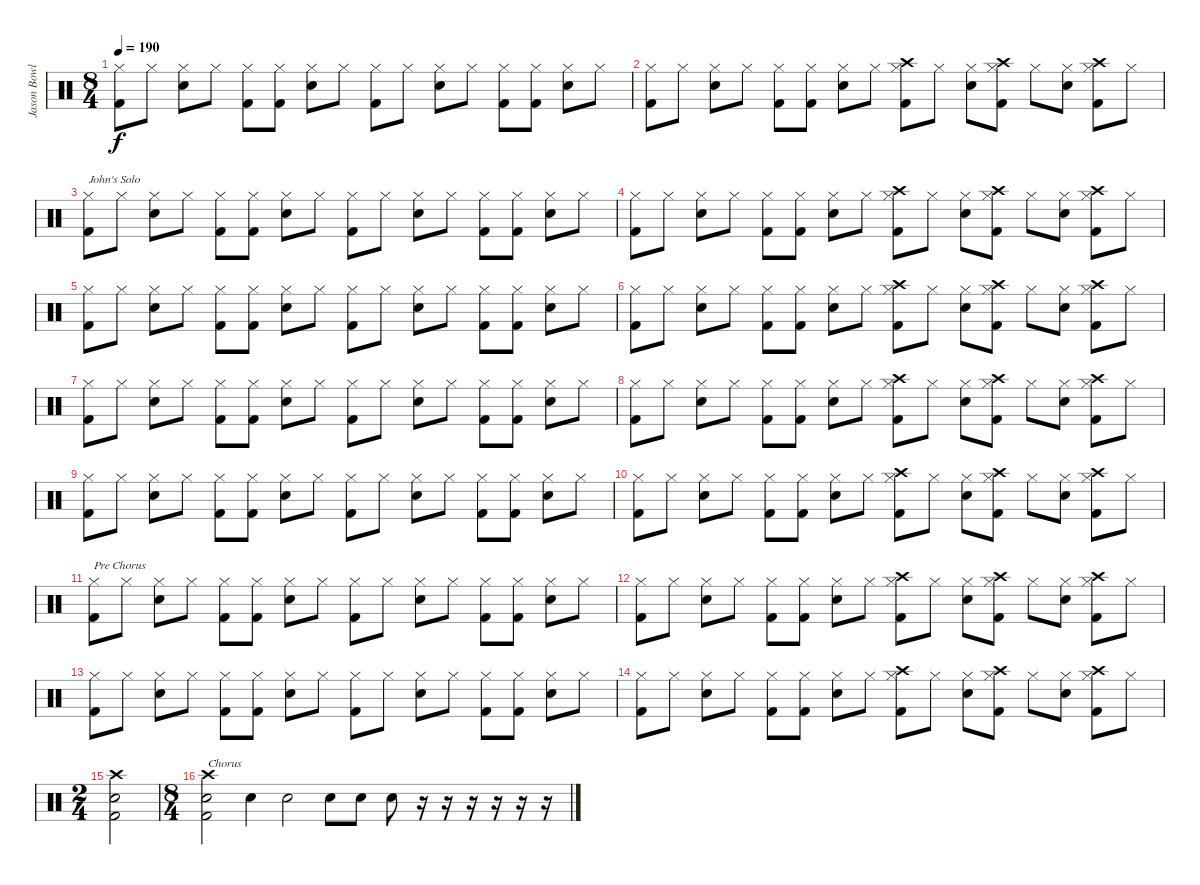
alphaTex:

\track ("Jason Bowld" "Jason Bowl") {instrument percussion}
\staff {score}
\articulation defaults
\ts (8 4)
\tempo 190
\clef neutral
\ks c
("Hi-Hat (closed)" "Kick (hit) 2").8{dy f} "Hi-Hat (closed)".8 ("Hi-Hat (closed)" "Snare (hit) 2").8 "Hi-Hat (closed)".8 ("Hi-Hat (closed)" "Kick (hit) 2").8 ("Hi-Hat (closed)" "Kick (hit) 2").8 ("Hi-Hat (closed)" "Snare (hit) 2").8 "Hi-Hat (closed)".8 ("Hi-Hat (closed)" "Kick (hit) 2").8 "Hi-Hat (closed)".8 ("Hi-Hat (closed)" "Snare (hit) 2").8 "Hi-Hat (closed)".8 ("Hi-Hat (closed)" "Kick (hit) 2").8 ("Hi-Hat (closed)" "Kick (hit) 2").8 ("Hi-Hat (closed)" "Snare (hit) 2").8 "Hi-Hat (closed)".8 |
("Hi-Hat (closed)" "Kick (hit) 2").8 "Hi-Hat (closed)".8 ("Hi-Hat (closed)" "Snare (hit) 2").8 "Hi-Hat (closed)".8 ("Hi-Hat (closed)" "Kick (hit) 2").8 ("Hi-Hat (closed)" "Kick (hit) 2").8 ("Hi-Hat (closed)" "Snare (hit) 2").8 "Hi-Hat (closed)".8 ("Hi-Hat (closed)" "Kick (hit) 2" "Crash high (hit)").8 "Hi-Hat (closed)".8 ("Hi-Hat (closed)" "Snare (hit) 2").8 ("Hi-Hat (closed)" "Kick (hit) 2" "Crash high (hit)").8 "Hi-Hat (closed)".8 ("Hi-Hat (closed)" "Snare (hit) 2").8 ("Hi-Hat (closed)" "Kick (hit) 2" "Crash high (hit)").8 "Hi-Hat (closed)".8 |
("Hi-Hat (closed)" "Kick (hit) 2").8{txt "John's Solo"} "Hi-Hat (closed)".8 ("Hi-Hat (closed)" "Snare (hit) 2").8 "Hi-Hat (closed)".8 ("Hi-Hat (closed)" "Kick (hit) 2").8 ("Hi-Hat (closed)" "Kick (hit) 2").8 ("Hi-Hat (closed)" "Snare (hit) 2").8 "Hi-Hat (closed)".8 ("Hi-Hat (closed)" "Kick (hit) 2").8 "Hi-Hat (closed)".8 ("Hi-Hat (closed)" "Snare (hit) 2").8 "Hi-Hat (closed)".8 ("Hi-Hat (closed)" "Kick (hit) 2").8 ("Hi-Hat (closed)" "Kick (hit) 2").8 ("Hi-Hat (closed)" "Snare (hit) 2").8 "Hi-Hat (closed)".8 |
("Hi-Hat (closed)" "Kick (hit) 2").8 "Hi-Hat (closed)".8 ("Hi-Hat (closed)" "Snare (hit) 2").8 "Hi-Hat (closed)".8 ("Hi-Hat (closed)" "Kick (hit) 2").8 ("Hi-Hat (closed)" "Kick (hit) 2").8 ("Hi-Hat (closed)" "Snare (hit) 2").8 "Hi-Hat (closed)".8 ("Hi-Hat (closed)" "Kick (hit) 2" "Crash high (hit)").8 "Hi-Hat (closed)".8 ("Hi-Hat (closed)" "Snare (hit) 2").8 ("Hi-Hat (closed)" "Kick (hit) 2" "Crash high (hit)").8 "Hi-Hat (closed)".8 ("Hi-Hat (closed)" "Snare (hit) 2").8 ("Hi-Hat (closed)" "Kick (hit) 2" "Crash high (hit)").8 "Hi-Hat (closed)".8 |
("Hi-Hat (closed)" "Kick (hit) 2").8 "Hi-Hat (closed)".8 ("Hi-Hat (closed)" "Snare (hit) 2").8 "Hi-Hat (closed)".8 ("Hi-Hat (closed)" "Kick (hit) 2").8 ("Hi-Hat (closed)" "Kick (hit) 2").8 ("Hi-Hat (closed)" "Snare (hit) 2").8 "Hi-Hat (closed)".8 ("Hi-Hat (closed)" "Kick (hit) 2").8 "Hi-Hat (closed)".8 ("Hi-Hat (closed)" "Snare (hit) 2").8 "Hi-Hat (closed)".8 ("Hi-Hat (closed)" "Kick (hit) 2").8 ("Hi-Hat (closed)" "Kick (hit) 2").8 ("Hi-Hat (closed)" "Snare (hit) 2").8 "Hi-Hat (closed)".8 |
("Hi-Hat (closed)" "Kick (hit) 2").8 "Hi-Hat (closed)".8 ("Hi-Hat (closed)" "Snare (hit) 2").8 "Hi-Hat (closed)".8 ("Hi-Hat (closed)" "Kick (hit) 2").8 ("Hi-Hat (closed)" "Kick (hit) 2").8 ("Hi-Hat (closed)" "Snare (hit) 2").8 "Hi-Hat (closed)".8 ("Hi-Hat (closed)" "Kick (hit) 2" "Crash high (hit)").8 "Hi-Hat (closed)".8 ("Hi-Hat (closed)" "Snare (hit) 2").8 ("Hi-Hat (closed)" "Kick (hit) 2" "Crash high (hit)").8 "Hi-Hat (closed)".8 ("Hi-Hat (closed)" "Snare (hit) 2").8 ("Hi-Hat (closed)" "Kick (hit) 2" "Crash high (hit)").8 "Hi-Hat (closed)".8 |
("Hi-Hat (closed)" "Kick (hit) 2").8 "Hi-Hat (closed)".8 ("Hi-Hat (closed)" "Snare (hit) 2").8 "Hi-Hat (closed)".8 ("Hi-Hat (closed)" "Kick (hit) 2").8 ("Hi-Hat (closed)" "Kick (hit) 2").8 ("Hi-Hat (closed)" "Snare (hit) 2").8 "Hi-Hat (closed)".8 ("Hi-Hat (closed)" "Kick (hit) 2").8 "Hi-Hat (closed)".8 ("Hi-Hat (closed)" "Snare (hit) 2").8 "Hi-Hat (closed)".8 ("Hi-Hat (closed)" "Kick (hit) 2").8 ("Hi-Hat (closed)" "Kick (hit) 2").8 ("Hi-Hat (closed)" "Snare (hit) 2").8 "Hi-Hat (closed)".8 |
("Hi-Hat (closed)" "Kick (hit) 2").8 "Hi-Hat (closed)".8 ("Hi-Hat (closed)" "Snare (hit) 2").8 "Hi-Hat (closed)".8 ("Hi-Hat (closed)" "Kick (hit) 2").8 ("Hi-Hat (closed)" "Kick (hit) 2").8 ("Hi-Hat (closed)" "Snare (hit) 2").8 "Hi-Hat (closed)".8 ("Hi-Hat (closed)" "Kick (hit) 2" "Crash high (hit)").8 "Hi-Hat (closed)".8 ("Hi-Hat (closed)" "Snare (hit) 2").8 ("Hi-Hat (closed)" "Kick (hit) 2" "Crash high (hit)").8 "Hi-Hat (closed)".8 ("Hi-Hat (closed)" "Snare (hit) 2").8 ("Hi-Hat (closed)" "Kick (hit) 2" "Crash high (hit)").8 "Hi-Hat (closed)".8 |
("Hi-Hat (closed)" "Kick (hit) 2").8 "Hi-Hat (closed)".8 ("Hi-Hat (closed)" "Snare (hit) 2").8 "Hi-Hat (closed)".8 ("Hi-Hat (closed)" "Kick (hit) 2").8 ("Hi-Hat (closed)" "Kick (hit) 2").8 ("Hi-Hat (closed)" "Snare (hit) 2").8 "Hi-Hat (closed)".8 ("Hi-Hat (closed)" "Kick (hit) 2").8 "Hi-Hat (closed)".8 ("Hi-Hat (closed)" "Snare (hit) 2").8 "Hi-Hat (closed)".8 ("Hi-Hat (closed)" "Kick (hit) 2").8 ("Hi-Hat (closed)" "Kick (hit) 2").8 ("Hi-Hat (closed)" "Snare (hit) 2").8 "Hi-Hat (closed)".8 |
("Hi-Hat (closed)" "Kick (hit) 2").8 "Hi-Hat (closed)".8 ("Hi-Hat (closed)" "Snare (hit) 2").8 "Hi-Hat (closed)".8 ("Hi-Hat (closed)" "Kick (hit) 2").8 ("Hi-Hat (closed)" "Kick (hit) 2").8 ("Hi-Hat (closed)" "Snare (hit) 2").8 "Hi-Hat (closed)".8 ("Hi-Hat (closed)" "Kick (hit) 2" "Crash high (hit)").8 "Hi-Hat (closed)".8 ("Hi-Hat (closed)" "Snare (hit) 2").8 ("Hi-Hat (closed)" "Kick (hit) 2" "Crash high (hit)").8 "Hi-Hat (closed)".8 ("Hi-Hat (closed)" "Snare (hit) 2").8 ("Hi-Hat (closed)" "Kick (hit) 2" "Crash high (hit)").8 "Hi-Hat (closed)".8 |
("Hi-Hat (closed)" "Kick (hit) 2").8{txt "Pre Chorus"} "Hi-Hat (closed)".8 ("Hi-Hat (closed)" "Snare (hit) 2").8 "Hi-Hat (closed)".8 ("Hi-Hat (closed)" "Kick (hit) 2").8 ("Hi-Hat (closed)" "Kick (hit) 2").8 ("Hi-Hat (closed)" "Snare (hit) 2").8 "Hi-Hat (closed)".8 ("Hi-Hat (closed)" "Kick (hit) 2").8 "Hi-Hat (closed)".8 ("Hi-Hat (closed)" "Snare (hit) 2").8 "Hi-Hat (closed)".8 ("Hi-Hat (closed)" "Kick (hit) 2").8 ("Hi-Hat (closed)" "Kick (hit) 2").8 ("Hi-Hat (closed)" "Snare (hit) 2").8 "Hi-Hat (closed)".8 |
("Hi-Hat (closed)" "Kick (hit) 2").8 "Hi-Hat (closed)".8 ("Hi-Hat (closed)" "Snare (hit) 2").8 "Hi-Hat (closed)".8 ("Hi-Hat (closed)" "Kick (hit) 2").8 ("Hi-Hat (closed)" "Kick (hit) 2").8 ("Hi-Hat (closed)" "Snare (hit) 2").8 "Hi-Hat (closed)".8 ("Hi-Hat (closed)" "Kick (hit) 2" "Crash high (hit)").8 "Hi-Hat (closed)".8 ("Hi-Hat (closed)" "Snare (hit) 2").8 ("Hi-Hat (closed)" "Kick (hit) 2" "Crash high (hit)").8 "Hi-Hat (closed)".8 ("Hi-Hat (closed)" "Snare (hit) 2").8 ("Hi-Hat (closed)" "Kick (hit) 2" "Crash high (hit)").8 "Hi-Hat (closed)".8 |
("Hi-Hat (closed)" "Kick (hit) 2").8 "Hi-Hat (closed)".8 ("Hi-Hat (closed)" "Snare (hit) 2").8 "Hi-Hat (closed)".8 ("Hi-Hat (closed)" "Kick (hit) 2").8 ("Hi-Hat (closed)" "Kick (hit) 2").8 ("Hi-Hat (closed)" "Snare (hit) 2").8 "Hi-Hat (closed)".8 ("Hi-Hat (closed)" "Kick (hit) 2").8 "Hi-Hat (closed)".8 ("Hi-Hat (closed)" "Snare (hit) 2").8 "Hi-Hat (closed)".8 ("Hi-Hat (closed)" "Kick (hit) 2").8 ("Hi-Hat (closed)" "Kick (hit) 2").8 ("Hi-Hat (closed)" "Snare (hit) 2").8 "Hi-Hat (closed)".8 |
("Hi-Hat (closed)" "Kick (hit) 2").8 "Hi-Hat (closed)".8 ("Hi-Hat (closed)" "Snare (hit) 2").8 "Hi-Hat (closed)".8 ("Hi-Hat (closed)" "Kick (hit) 2").8 ("Hi-Hat (closed)" "Kick (hit) 2").8 ("Hi-Hat (closed)" "Snare (hit) 2").8 "Hi-Hat (closed)".8 ("Hi-Hat (closed)" "Kick (hit) 2" "Crash high (hit)").8 "Hi-Hat (closed)".8 ("Hi-Hat (closed)" "Snare (hit) 2").8 ("Hi-Hat (closed)" "Kick (hit) 2" "Crash high (hit)").8 "Hi-Hat (closed)".8 ("Hi-Hat (closed)" "Snare (hit) 2").8 ("Hi-Hat (closed)" "Kick (hit) 2" "Crash high (hit)").8 "Hi-Hat (closed)".8 |
\ts (2 4)
("Kick (hit) 2" "Snare (hit) 2" "Crash high (hit)").2 |
\ts (8 4)
("Kick (hit) 2" "Snare (hit) 2" "Crash high (hit)").2{txt "Chorus"} "Snare (hit) 2".4 "Snare (hit) 2".2 "Snare (hit) 2".8 "Snare (hit) 2".8 "Snare (hit) 2".8 r.16 r.16 r.16 r.16 r.16 r.16
